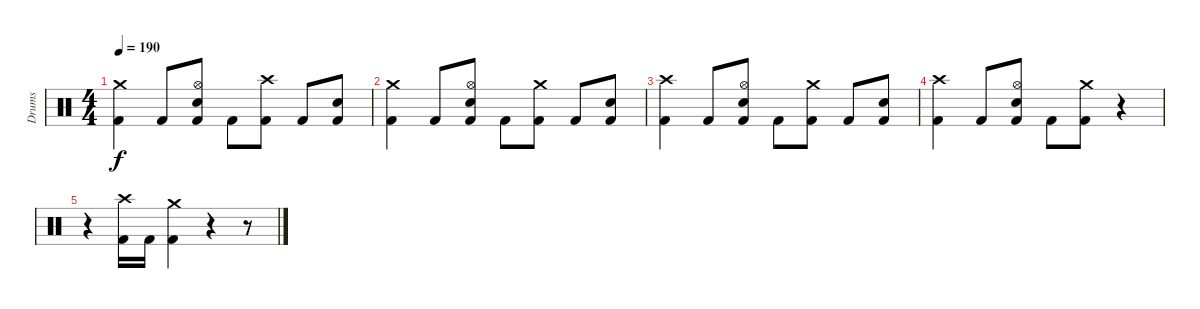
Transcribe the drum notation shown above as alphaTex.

\track ("Drums" "Drums") {instrument percussion}
\staff {score}
\articulation defaults
\ts (4 4)
\tempo 190
\clef neutral
\ks c
("Crash medium (hit)" "Kick (hit) 2").4{dy f} "Kick (hit) 2".8 ("Hi-Hat (open)" "Snare (hit) 2" "Kick (hit) 2").8 "Kick (hit) 2".8 ("Crash high (hit)" "Kick (hit) 2").8 "Kick (hit) 2".8 ("Snare (hit) 2" "Kick (hit) 2").8 |
("Crash medium (hit)" "Kick (hit) 2").4 "Kick (hit) 2".8 ("Hi-Hat (open)" "Snare (hit) 2" "Kick (hit) 2").8 "Kick (hit) 2".8 ("Crash medium (hit)" "Kick (hit) 2").8 "Kick (hit) 2".8 ("Snare (hit) 2" "Kick (hit) 2").8 |
("Crash high (hit)" "Kick (hit) 2").4 "Kick (hit) 2".8 ("Hi-Hat (open)" "Snare (hit) 2" "Kick (hit) 2").8 "Kick (hit) 2".8 ("Crash medium (hit)" "Kick (hit) 2").8 "Kick (hit) 2".8 ("Snare (hit) 2" "Kick (hit) 2").8 |
("Crash high (hit)" "Kick (hit) 2").4 "Kick (hit) 2".8 ("Hi-Hat (open)" "Snare (hit) 2" "Kick (hit) 2").8 "Kick (hit) 2".8 ("Crash medium (hit)" "Kick (hit) 2").8 r.4 |
r.4 ("Crash high (hit)" "Kick (hit) 2").16 "Kick (hit) 2".16 ("Crash medium (hit)" "Kick (hit) 2").4 r.4 r.8
